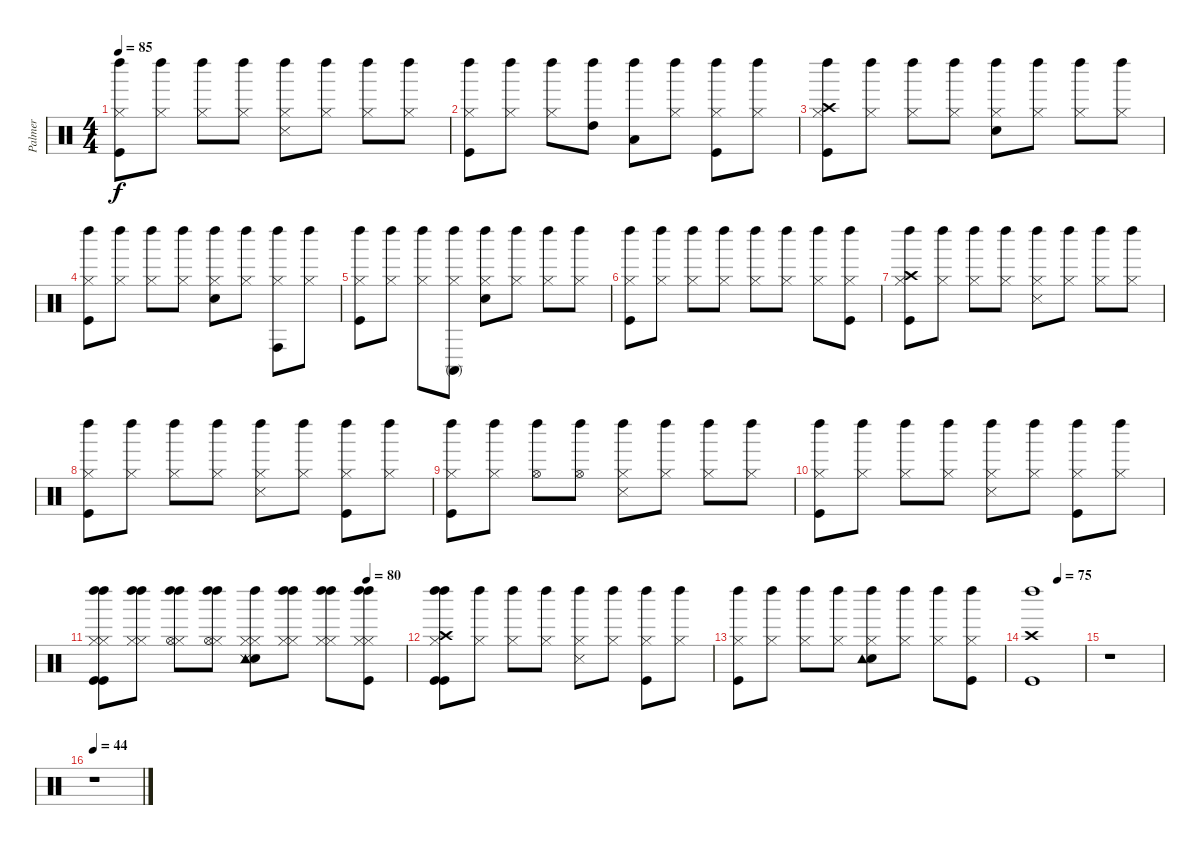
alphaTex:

\track ("Palmer" "Palmer") {instrument percussion}
\staff {score}
\articulation defaults
\ts (4 4)
\tempo 85
\clef neutral
\ks c
("Kick (hit)" "Hi-Hat (closed)" "Left Maraca (hit)").8{dy f} ("Hi-Hat (closed)" "Left Maraca (hit)").8 ("Hi-Hat (closed)" "Left Maraca (hit)").8 ("Hi-Hat (closed)" "Left Maraca (hit)").8 ("Hi-Hat (closed)" "Snare (side stick) 3" "Left Maraca (hit)").8 ("Hi-Hat (closed)" "Left Maraca (hit)").8 ("Hi-Hat (closed)" "Left Maraca (hit)").8 ("Hi-Hat (closed)" "Left Maraca (hit)").8 |
("Kick (hit)" "Hi-Hat (closed)" "Left Maraca (hit)").8 ("Hi-Hat (closed)" "Left Maraca (hit)").8 ("Hi-Hat (closed)" "Left Maraca (hit)").8 ("High Tom (hit)" "Left Maraca (hit)").8 ("Low Tom (hit)" "Left Maraca (hit)").8 ("Hi-Hat (closed)" "Left Maraca (hit)").8 ("Kick (hit)" "Hi-Hat (closed)" "Left Maraca (hit)").8 ("Hi-Hat (closed)" "Left Maraca (hit)").8 |
("Kick (hit)" "Hi-Hat (closed)" "Crash high (hit)" "Left Maraca (hit)").8 ("Hi-Hat (closed)" "Left Maraca (hit)").8 ("Hi-Hat (closed)" "Left Maraca (hit)").8 ("Hi-Hat (closed)" "Left Maraca (hit)").8 ("Snare (hit) 2" "Hi-Hat (closed)" "Left Maraca (hit)").8 ("Hi-Hat (closed)" "Left Maraca (hit)").8 ("Hi-Hat (closed)" "Left Maraca (hit)").8 ("Hi-Hat (closed)" "Left Maraca (hit)").8 |
("Kick (hit)" "Hi-Hat (closed)" "Left Maraca (hit)").8 ("Hi-Hat (closed)" "Left Maraca (hit)").8 ("Hi-Hat (closed)" "Left Maraca (hit)").8 ("Hi-Hat (closed)" "Left Maraca (hit)").8 ("Snare (hit) 2" "Hi-Hat (closed)" "Left Maraca (hit)").8 ("Hi-Hat (closed)" "Left Maraca (hit)").8 ("Hi-Hat (closed)" "Conga high (hit)" "Left Maraca (hit)").8 ("Hi-Hat (closed)" "Left Maraca (hit)").8 |
("Kick (hit)" "Hi-Hat (closed)" "Left Maraca (hit)").8 ("Hi-Hat (closed)" "Left Maraca (hit)").8 ("Hi-Hat (closed)" "Left Maraca (hit)").8 ("Hi-Hat (closed)" "Conga high (mute)" "Left Maraca (hit)").8 ("Snare (hit) 2" "Hi-Hat (closed)" "Left Maraca (hit)").8 ("Hi-Hat (closed)" "Left Maraca (hit)").8 ("Hi-Hat (closed)" "Left Maraca (hit)").8 ("Hi-Hat (closed)" "Left Maraca (hit)").8 |
("Kick (hit)" "Hi-Hat (closed)" "Left Maraca (hit)").8 ("Hi-Hat (closed)" "Left Maraca (hit)").8 ("Hi-Hat (closed)" "Left Maraca (hit)").8 ("Hi-Hat (closed)" "Left Maraca (hit)").8 ("Hi-Hat (closed)" "Left Maraca (hit)").8 ("Hi-Hat (closed)" "Left Maraca (hit)").8 ("Hi-Hat (closed)" "Left Maraca (hit)").8 ("Kick (hit)" "Hi-Hat (closed)" "Left Maraca (hit)").8 |
("Kick (hit)" "Hi-Hat (closed)" "Crash high (hit)" "Left Maraca (hit)").8 ("Hi-Hat (closed)" "Left Maraca (hit)").8 ("Hi-Hat (closed)" "Left Maraca (hit)").8 ("Hi-Hat (closed)" "Left Maraca (hit)").8 ("Hi-Hat (closed)" "Snare (side stick) 3" "Left Maraca (hit)").8 ("Hi-Hat (closed)" "Left Maraca (hit)").8 ("Hi-Hat (closed)" "Left Maraca (hit)").8 ("Hi-Hat (closed)" "Left Maraca (hit)").8 |
("Kick (hit)" "Hi-Hat (closed)" "Left Maraca (hit)").8 ("Hi-Hat (closed)" "Left Maraca (hit)").8 ("Hi-Hat (closed)" "Left Maraca (hit)").8 ("Hi-Hat (closed)" "Left Maraca (hit)").8 ("Hi-Hat (closed)" "Snare (side stick) 3" "Left Maraca (hit)").8 ("Hi-Hat (closed)" "Left Maraca (hit)").8 ("Kick (hit)" "Hi-Hat (closed)" "Left Maraca (hit)").8 ("Hi-Hat (closed)" "Left Maraca (hit)").8 |
("Kick (hit)" "Hi-Hat (closed)" "Left Maraca (hit)").8 ("Hi-Hat (closed)" "Left Maraca (hit)").8 ("Hi-Hat (open)" "Left Maraca (hit)").8 ("Hi-Hat (open)" "Left Maraca (hit)").8 ("Hi-Hat (closed)" "Snare (side stick) 3" "Left Maraca (hit)").8 ("Hi-Hat (closed)" "Left Maraca (hit)").8 ("Hi-Hat (closed)" "Left Maraca (hit)").8 ("Hi-Hat (closed)" "Left Maraca (hit)").8 |
("Kick (hit)" "Hi-Hat (closed)" "Left Maraca (hit)").8 ("Hi-Hat (closed)" "Left Maraca (hit)").8 ("Hi-Hat (closed)" "Left Maraca (hit)").8 ("Hi-Hat (closed)" "Left Maraca (hit)").8 ("Hi-Hat (closed)" "Snare (side stick) 3" "Left Maraca (hit)").8 ("Hi-Hat (closed)" "Left Maraca (hit)").8 ("Kick (hit)" "Hi-Hat (closed)" "Left Maraca (hit)").8 ("Hi-Hat (closed)" "Left Maraca (hit)").8 |
\tempo (80 0.875)
("Kick (hit)" "Hi-Hat (closed)" "Left Maraca (hit)" "Kick (hit)" "Hi-Hat (closed)" "Left Maraca (hit)").8 ("Hi-Hat (closed)" "Left Maraca (hit)" "Hi-Hat (closed)" "Left Maraca (hit)").8 ("Hi-Hat (closed)" "Left Maraca (hit)" "Hi-Hat (open)" "Left Maraca (hit)").8 ("Hi-Hat (closed)" "Left Maraca (hit)" "Hi-Hat (open)" "Left Maraca (hit)").8 ("Snare (hit) 2" "Hi-Hat (closed)" "Tambourine (hit)" "Left Maraca (hit)" "Hi-Hat (closed)" "Snare (side stick) 3").8 ("Hi-Hat (closed)" "Left Maraca (hit)" "Hi-Hat (closed)" "Left Maraca (hit)").8 ("Hi-Hat (closed)" "Left Maraca (hit)" "Hi-Hat (closed)" "Left Maraca (hit)").8 ("Kick (hit)" "Hi-Hat (closed)" "Left Maraca (hit)" "Hi-Hat (closed)" "Left Maraca (hit)").8 |
("Kick (hit)" "Crash high (hit)" "Left Maraca (hit)" "Kick (hit)" "Hi-Hat (closed)" "Left Maraca (hit)").8 ("Hi-Hat (closed)" "Left Maraca (hit)").8 ("Hi-Hat (closed)" "Left Maraca (hit)").8 ("Hi-Hat (closed)" "Left Maraca (hit)").8 ("Hi-Hat (closed)" "Snare (side stick) 3" "Left Maraca (hit)").8 ("Hi-Hat (closed)" "Left Maraca (hit)").8 ("Kick (hit)" "Hi-Hat (closed)" "Left Maraca (hit)").8 ("Hi-Hat (closed)" "Left Maraca (hit)").8 |
("Kick (hit)" "Hi-Hat (closed)" "Left Maraca (hit)").8 ("Hi-Hat (closed)" "Left Maraca (hit)").8 ("Hi-Hat (closed)" "Left Maraca (hit)").8 ("Hi-Hat (closed)" "Left Maraca (hit)").8 ("Snare (hit) 2" "Hi-Hat (closed)" "Tambourine (hit)" "Left Maraca (hit)").8 ("Hi-Hat (closed)" "Left Maraca (hit)").8 ("Hi-Hat (closed)" "Left Maraca (hit)").8 ("Kick (hit)" "Hi-Hat (closed)" "Left Maraca (hit)").8 |
\tempo (75 0.5)
("Kick (hit)" "Crash high (hit)" "Left Maraca (hit)").1 |
r.1 |
\tempo 44
r.1
